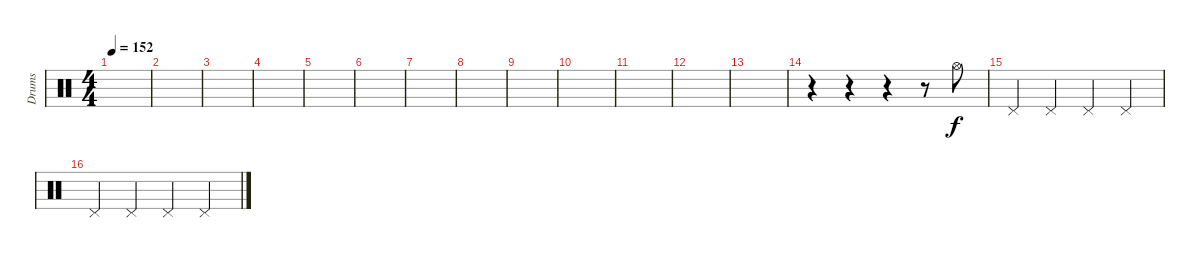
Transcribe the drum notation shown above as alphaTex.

\track ("Drums" "Drums") {instrument percussion}
\staff {score}
\articulation defaults
\ts (4 4)
\tempo 152
\clef neutral
\ks c
|
|
|
|
|
|
|
|
|
|
|
|
|
r.4 r.4 r.4 r.8 "Hi-Hat (open)".8 |
"Pedal Hi-Hat (hit)".4 "Pedal Hi-Hat (hit)".4 "Pedal Hi-Hat (hit)".4 "Pedal Hi-Hat (hit)".4 |
"Pedal Hi-Hat (hit)".4 "Pedal Hi-Hat (hit)".4 "Pedal Hi-Hat (hit)".4 "Pedal Hi-Hat (hit)".4
